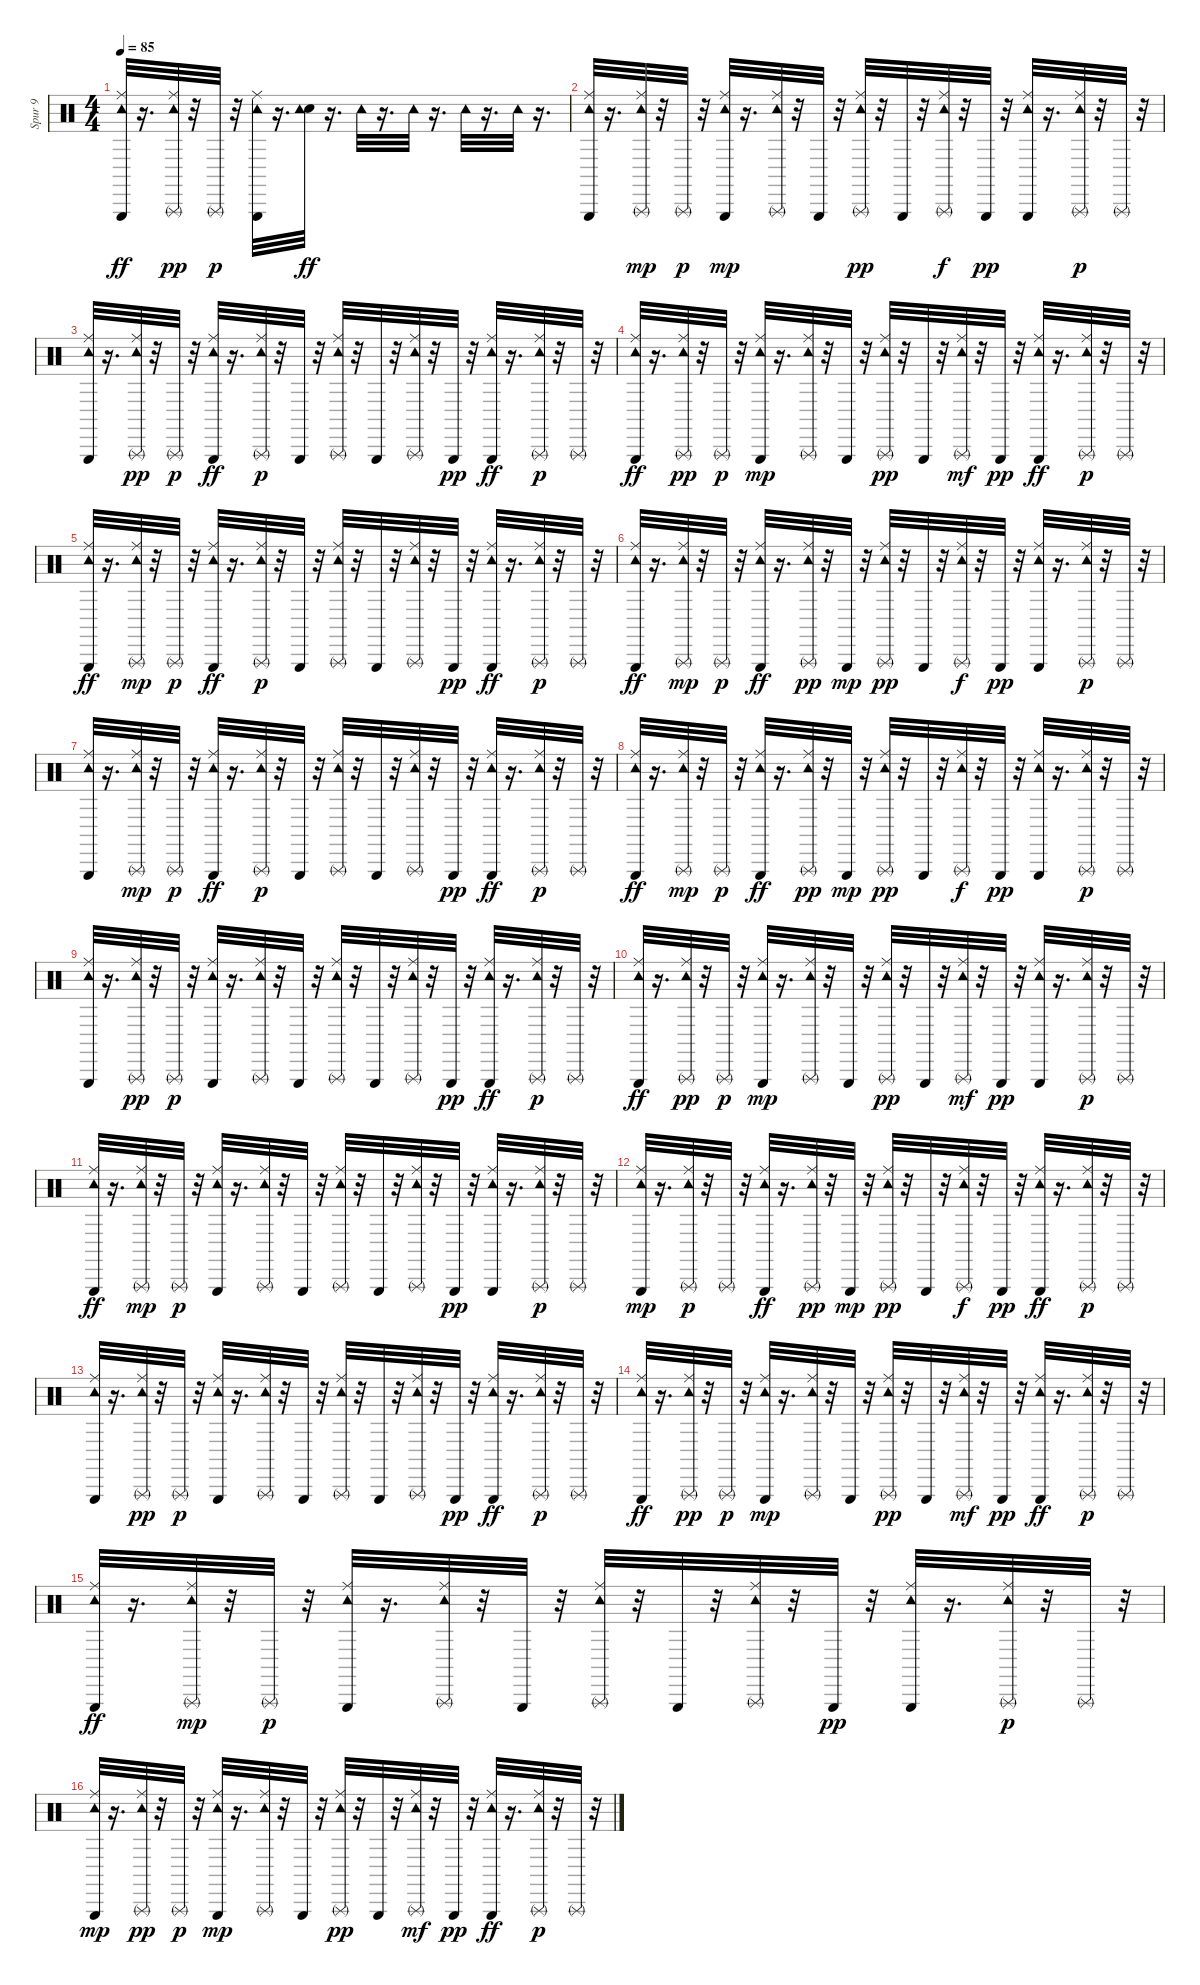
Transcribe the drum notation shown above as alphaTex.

\track ("Spur 9" "Spur 9") {instrument percussion}
\staff {score}
\articulation defaults
\ts (4 4)
\tempo 85
\clef neutral
\ks c
("Ride (middle)" "Triangle (hit)" "Tambourine (hit)").32{dy ff} r.16{d} ("Tambourine (hit)" "Triangle (rnute)" "Ride (middle)").32{dy pp} r.32 "Triangle (rnute)".32{dy p} r.32 ("Ride (middle)" "Tambourine (hit)" "Triangle (hit)").32 r.16{d} ("Snare (hit)" "Tambourine (hit)").32{dy ff} r.16{d} "Tambourine (hit)".32 r.16{d} "Tambourine (hit)".32 r.16{d} "Tambourine (hit)".32 r.16{d} "Tambourine (hit)".32 r.16{d} |
("Ride (middle)" "Triangle (hit)" "Tambourine (hit)").32 r.16{d} ("Triangle (rnute)" "Ride (middle)" "Tambourine (hit)").32{dy mp} r.32 "Triangle (rnute)".32{dy p} r.32 ("Tambourine (hit)" "Triangle (hit)" "Ride (middle)").32{dy mp} r.16{d} ("Ride (middle)" "Triangle (rnute)" "Tambourine (hit)").32 r.32 "Triangle (hit)".32 r.32 ("Ride (middle)" "Tambourine (hit)" "Triangle (rnute)").32{dy pp} r.32 "Triangle (hit)".32 r.32 ("Ride (middle)" "Tambourine (hit)" "Triangle (rnute)").32{dy f} r.32 "Triangle (hit)".32{dy pp} r.32 ("Tambourine (hit)" "Ride (middle)" "Triangle (hit)").32 r.16{d} ("Tambourine (hit)" "Triangle (rnute)" "Ride (middle)").32{dy p} r.32 "Triangle (rnute)".32 r.32 |
("Ride (middle)" "Tambourine (hit)" "Triangle (hit)").32 r.16{d} ("Triangle (rnute)" "Tambourine (hit)" "Ride (middle)").32{dy pp} r.32 "Triangle (rnute)".32{dy p} r.32 ("Ride (middle)" "Triangle (hit)" "Tambourine (hit)").32{dy ff} r.16{d} ("Triangle (rnute)" "Ride (middle)" "Tambourine (hit)").32{dy p} r.32 "Triangle (hit)".32 r.32 ("Triangle (rnute)" "Ride (middle)" "Tambourine (hit)").32 r.32 "Triangle (hit)".32 r.32 ("Ride (middle)" "Tambourine (hit)" "Triangle (rnute)").32 r.32 "Triangle (hit)".32{dy pp} r.32 ("Triangle (hit)" "Ride (middle)" "Tambourine (hit)").32{dy ff} r.16{d} ("Tambourine (hit)" "Triangle (rnute)" "Ride (middle)").32{dy p} r.32 "Triangle (rnute)".32 r.32 |
("Ride (middle)" "Triangle (hit)" "Tambourine (hit)").32{dy ff} r.16{d} ("Tambourine (hit)" "Triangle (rnute)" "Ride (middle)").32{dy pp} r.32 "Triangle (rnute)".32{dy p} r.32 ("Tambourine (hit)" "Triangle (hit)" "Ride (middle)").32{dy mp} r.16{d} ("Ride (middle)" "Triangle (rnute)" "Tambourine (hit)").32 r.32 "Triangle (hit)".32 r.32 ("Ride (middle)" "Tambourine (hit)" "Triangle (rnute)").32{dy pp} r.32 "Triangle (hit)".32 r.32 ("Triangle (rnute)" "Ride (middle)" "Tambourine (hit)").32{dy mf} r.32 "Triangle (hit)".32{dy pp} r.32 ("Triangle (hit)" "Ride (middle)" "Tambourine (hit)").32{dy ff} r.16{d} ("Tambourine (hit)" "Triangle (rnute)" "Ride (middle)").32{dy p} r.32 "Triangle (rnute)".32 r.32 |
("Ride (middle)" "Triangle (hit)" "Tambourine (hit)").32{dy ff} r.16{d} ("Ride (middle)" "Tambourine (hit)" "Triangle (rnute)").32{dy mp} r.32 "Triangle (rnute)".32{dy p} r.32 ("Ride (middle)" "Triangle (hit)" "Tambourine (hit)").32{dy ff} r.16{d} ("Triangle (rnute)" "Ride (middle)" "Tambourine (hit)").32{dy p} r.32 "Triangle (hit)".32 r.32 ("Ride (middle)" "Tambourine (hit)" "Triangle (rnute)").32 r.32 "Triangle (hit)".32 r.32 ("Ride (middle)" "Tambourine (hit)" "Triangle (rnute)").32 r.32 "Triangle (hit)".32{dy pp} r.32 ("Triangle (hit)" "Ride (middle)" "Tambourine (hit)").32{dy ff} r.16{d} ("Tambourine (hit)" "Triangle (rnute)" "Ride (middle)").32{dy p} r.32 "Triangle (rnute)".32 r.32 |
("Triangle (hit)" "Ride (middle)" "Tambourine (hit)").32{dy ff} r.16{d} ("Triangle (rnute)" "Ride (middle)" "Tambourine (hit)").32{dy mp} r.32 "Triangle (rnute)".32{dy p} r.32 ("Ride (middle)" "Triangle (hit)" "Tambourine (hit)").32{dy ff} r.16{d} ("Ride (middle)" "Tambourine (hit)" "Triangle (rnute)").32{dy pp} r.32 "Triangle (hit)".32{dy mp} r.32 ("Tambourine (hit)" "Ride (middle)" "Triangle (rnute)").32{dy pp} r.32 "Triangle (hit)".32 r.32 ("Ride (middle)" "Tambourine (hit)" "Triangle (rnute)").32{dy f} r.32 "Triangle (hit)".32{dy pp} r.32 ("Tambourine (hit)" "Ride (middle)" "Triangle (hit)").32 r.16{d} ("Tambourine (hit)" "Triangle (rnute)" "Ride (middle)").32{dy p} r.32 "Triangle (rnute)".32 r.32 |
("Tambourine (hit)" "Triangle (hit)" "Ride (middle)").32 r.16{d} ("Triangle (rnute)" "Ride (middle)" "Tambourine (hit)").32{dy mp} r.32 "Triangle (rnute)".32{dy p} r.32 ("Triangle (hit)" "Tambourine (hit)" "Ride (middle)").32{dy ff} r.16{d} ("Ride (middle)" "Tambourine (hit)" "Triangle (rnute)").32{dy p} r.32 "Triangle (hit)".32 r.32 ("Ride (middle)" "Tambourine (hit)" "Triangle (rnute)").32 r.32 "Triangle (hit)".32 r.32 ("Ride (middle)" "Tambourine (hit)" "Triangle (rnute)").32 r.32 "Triangle (hit)".32{dy pp} r.32 ("Triangle (hit)" "Ride (middle)" "Tambourine (hit)").32{dy ff} r.16{d} ("Tambourine (hit)" "Triangle (rnute)" "Ride (middle)").32{dy p} r.32 "Triangle (rnute)".32 r.32 |
("Ride (middle)" "Triangle (hit)" "Tambourine (hit)").32{dy ff} r.16{d} ("Triangle (rnute)" "Ride (middle)" "Tambourine (hit)").32{dy mp} r.32 "Triangle (rnute)".32{dy p} r.32 ("Triangle (hit)" "Tambourine (hit)" "Ride (middle)").32{dy ff} r.16{d} ("Ride (middle)" "Tambourine (hit)" "Triangle (rnute)").32{dy pp} r.32 "Triangle (hit)".32{dy mp} r.32 ("Tambourine (hit)" "Ride (middle)" "Triangle (rnute)").32{dy pp} r.32 "Triangle (hit)".32 r.32 ("Ride (middle)" "Tambourine (hit)" "Triangle (rnute)").32{dy f} r.32 "Triangle (hit)".32{dy pp} r.32 ("Tambourine (hit)" "Ride (middle)" "Triangle (hit)").32 r.16{d} ("Tambourine (hit)" "Triangle (rnute)" "Ride (middle)").32{dy p} r.32 "Triangle (rnute)".32 r.32 |
("Tambourine (hit)" "Triangle (hit)" "Ride (middle)").32 r.16{d} ("Triangle (rnute)" "Tambourine (hit)" "Ride (middle)").32{dy pp} r.32 "Triangle (rnute)".32{dy p} r.32 ("Tambourine (hit)" "Ride (middle)" "Triangle (hit)").32 r.16{d} ("Ride (middle)" "Tambourine (hit)" "Triangle (rnute)").32 r.32 "Triangle (hit)".32 r.32 ("Ride (middle)" "Tambourine (hit)" "Triangle (rnute)").32 r.32 "Triangle (hit)".32 r.32 ("Ride (middle)" "Tambourine (hit)" "Triangle (rnute)").32 r.32 "Triangle (hit)".32{dy pp} r.32 ("Triangle (hit)" "Ride (middle)" "Tambourine (hit)").32{dy ff} r.16{d} ("Tambourine (hit)" "Triangle (rnute)" "Ride (middle)").32{dy p} r.32 "Triangle (rnute)".32 r.32 |
("Ride (middle)" "Triangle (hit)" "Tambourine (hit)").32{dy ff} r.16{d} ("Tambourine (hit)" "Triangle (rnute)" "Ride (middle)").32{dy pp} r.32 "Triangle (rnute)".32{dy p} r.32 ("Tambourine (hit)" "Triangle (hit)" "Ride (middle)").32{dy mp} r.16{d} ("Ride (middle)" "Triangle (rnute)" "Tambourine (hit)").32 r.32 "Triangle (hit)".32 r.32 ("Ride (middle)" "Tambourine (hit)" "Triangle (rnute)").32{dy pp} r.32 "Triangle (hit)".32 r.32 ("Triangle (rnute)" "Ride (middle)" "Tambourine (hit)").32{dy mf} r.32 "Triangle (hit)".32{dy pp} r.32 ("Tambourine (hit)" "Ride (middle)" "Triangle (hit)").32 r.16{d} ("Tambourine (hit)" "Triangle (rnute)" "Ride (middle)").32{dy p} r.32 "Triangle (rnute)".32 r.32 |
("Triangle (hit)" "Ride (middle)" "Tambourine (hit)").32{dy ff} r.16{d} ("Triangle (rnute)" "Ride (middle)" "Tambourine (hit)").32{dy mp} r.32 "Triangle (rnute)".32{dy p} r.32 ("Ride (middle)" "Tambourine (hit)" "Triangle (hit)").32 r.16{d} ("Ride (middle)" "Tambourine (hit)" "Triangle (rnute)").32 r.32 "Triangle (hit)".32 r.32 ("Ride (middle)" "Tambourine (hit)" "Triangle (rnute)").32 r.32 "Triangle (hit)".32 r.32 ("Tambourine (hit)" "Ride (middle)" "Triangle (rnute)").32 r.32 "Triangle (hit)".32{dy pp} r.32 ("Tambourine (hit)" "Ride (middle)" "Triangle (hit)").32 r.16{d} ("Tambourine (hit)" "Triangle (rnute)" "Ride (middle)").32{dy p} r.32 "Triangle (rnute)".32 r.32 |
("Tambourine (hit)" "Triangle (hit)" "Ride (middle)").32{dy mp} r.16{d} ("Tambourine (hit)" "Ride (middle)" "Triangle (rnute)").32{dy p} r.32 "Triangle (rnute)".32 r.32 ("Triangle (hit)" "Tambourine (hit)" "Ride (middle)").32{dy ff} r.16{d} ("Ride (middle)" "Tambourine (hit)" "Triangle (rnute)").32{dy pp} r.32 "Triangle (hit)".32{dy mp} r.32 ("Ride (middle)" "Tambourine (hit)" "Triangle (rnute)").32{dy pp} r.32 "Triangle (hit)".32 r.32 ("Ride (middle)" "Tambourine (hit)" "Triangle (rnute)").32{dy f} r.32 "Triangle (hit)".32{dy pp} r.32 ("Ride (middle)" "Triangle (hit)" "Tambourine (hit)").32{dy ff} r.16{d} ("Tambourine (hit)" "Triangle (rnute)" "Ride (middle)").32{dy p} r.32 "Triangle (rnute)".32 r.32 |
("Tambourine (hit)" "Triangle (hit)" "Ride (middle)").32 r.16{d} ("Triangle (rnute)" "Tambourine (hit)" "Ride (middle)").32{dy pp} r.32 "Triangle (rnute)".32{dy p} r.32 ("Tambourine (hit)" "Ride (middle)" "Triangle (hit)").32 r.16{d} ("Ride (middle)" "Tambourine (hit)" "Triangle (rnute)").32 r.32 "Triangle (hit)".32 r.32 ("Ride (middle)" "Tambourine (hit)" "Triangle (rnute)").32 r.32 "Triangle (hit)".32 r.32 ("Ride (middle)" "Tambourine (hit)" "Triangle (rnute)").32 r.32 "Triangle (hit)".32{dy pp} r.32 ("Triangle (hit)" "Ride (middle)" "Tambourine (hit)").32{dy ff} r.16{d} ("Tambourine (hit)" "Triangle (rnute)" "Ride (middle)").32{dy p} r.32 "Triangle (rnute)".32 r.32 |
("Ride (middle)" "Triangle (hit)" "Tambourine (hit)").32{dy ff} r.16{d} ("Triangle (rnute)" "Tambourine (hit)" "Ride (middle)").32{dy pp} r.32 "Triangle (rnute)".32{dy p} r.32 ("Tambourine (hit)" "Ride (middle)" "Triangle (hit)").32{dy mp} r.16{d} ("Triangle (rnute)" "Ride (middle)" "Tambourine (hit)").32 r.32 "Triangle (hit)".32 r.32 ("Ride (middle)" "Tambourine (hit)" "Triangle (rnute)").32{dy pp} r.32 "Triangle (hit)".32 r.32 ("Triangle (rnute)" "Ride (middle)" "Tambourine (hit)").32{dy mf} r.32 "Triangle (hit)".32{dy pp} r.32 ("Ride (middle)" "Triangle (hit)" "Tambourine (hit)").32{dy ff} r.16{d} ("Tambourine (hit)" "Triangle (rnute)" "Ride (middle)").32{dy p} r.32 "Triangle (rnute)".32 r.32 |
("Triangle (hit)" "Ride (middle)" "Tambourine (hit)").32{dy ff} r.16{d} ("Triangle (rnute)" "Ride (middle)" "Tambourine (hit)").32{dy mp} r.32 "Triangle (rnute)".32{dy p} r.32 ("Ride (middle)" "Tambourine (hit)" "Triangle (hit)").32 r.16{d} ("Ride (middle)" "Tambourine (hit)" "Triangle (rnute)").32 r.32 "Triangle (hit)".32 r.32 ("Ride (middle)" "Tambourine (hit)" "Triangle (rnute)").32 r.32 "Triangle (hit)".32 r.32 ("Tambourine (hit)" "Ride (middle)" "Triangle (rnute)").32 r.32 "Triangle (hit)".32{dy pp} r.32 ("Tambourine (hit)" "Ride (middle)" "Triangle (hit)").32 r.16{d} ("Tambourine (hit)" "Triangle (rnute)" "Ride (middle)").32{dy p} r.32 "Triangle (rnute)".32 r.32 |
("Tambourine (hit)" "Triangle (hit)" "Ride (middle)").32{dy mp} r.16{d} ("Triangle (rnute)" "Tambourine (hit)" "Ride (middle)").32{dy pp} r.32 "Triangle (rnute)".32{dy p} r.32 ("Tambourine (hit)" "Ride (middle)" "Triangle (hit)").32{dy mp} r.16{d} ("Triangle (rnute)" "Ride (middle)" "Tambourine (hit)").32 r.32 "Triangle (hit)".32 r.32 ("Triangle (rnute)" "Ride (middle)" "Tambourine (hit)").32{dy pp} r.32 "Triangle (hit)".32 r.32 ("Triangle (rnute)" "Ride (middle)" "Tambourine (hit)").32{dy mf} r.32 "Triangle (hit)".32{dy pp} r.32 ("Ride (middle)" "Triangle (hit)" "Tambourine (hit)").32{dy ff} r.16{d} ("Tambourine (hit)" "Triangle (rnute)" "Ride (middle)").32{dy p} r.32 "Triangle (rnute)".32 r.32
